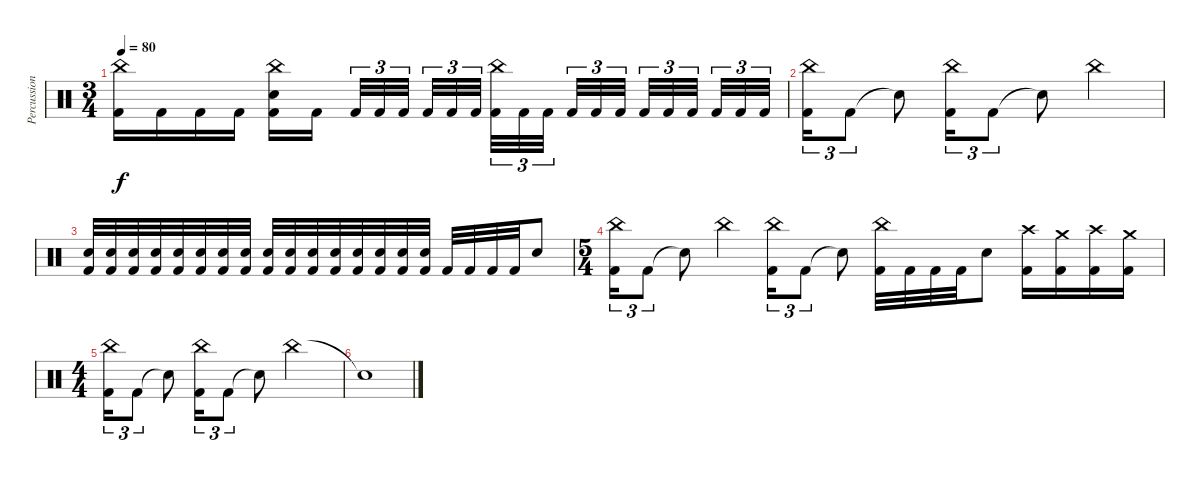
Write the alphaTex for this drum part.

\track ("Percussion" "Percussion") {instrument percussion}
\staff
\articulation defaults
\ts (3 4)
\tempo 80
\clef neutral
\ks c
("China (hit)" "Kick (hit) 2").16{dy f} "Kick (hit) 2".16 "Kick (hit) 2".16 "Kick (hit) 2".16 ("China (hit)" "Electric Snare (hit)" "Kick (hit) 2").16 "Kick (hit) 2".16{beam splitsecondary} "Kick (hit) 2".32{tu (3 2)} "Kick (hit) 2".32{tu (3 2)} "Kick (hit) 2".32{tu (3 2) beam splitsecondary} "Kick (hit) 2".32{tu (3 2)} "Kick (hit) 2".32{tu (3 2)} "Kick (hit) 2".32{tu (3 2)} ("China (hit)" "Kick (hit) 2").32{tu (3 2)} "Kick (hit) 2".32{tu (3 2)} "Kick (hit) 2".32{tu (3 2) beam splitsecondary} "Kick (hit) 2".32{tu (3 2)} "Kick (hit) 2".32{tu (3 2)} "Kick (hit) 2".32{tu (3 2) beam splitsecondary} "Kick (hit) 2".32{tu (3 2)} "Kick (hit) 2".32{tu (3 2)} "Kick (hit) 2".32{tu (3 2) beam splitsecondary} "Kick (hit) 2".32{tu (3 2)} "Kick (hit) 2".32{tu (3 2)} "Kick (hit) 2".32{tu (3 2)} |
("China (hit)" "Kick (hit) 2").16{tu (3 2)} "Kick (hit) 2".8{tu (3 2)} "Snare (hit)"{t}.8 ("China (hit)" "Kick (hit) 2").16{tu (3 2)} "Kick (hit) 2".8{tu (3 2)} "Snare (hit)"{t}.8 "China (hit)".4 |
("Electric Snare (hit)" "Kick (hit) 2").32 ("Electric Snare (hit)" "Kick (hit) 2").32 ("Electric Snare (hit)" "Kick (hit) 2").32 ("Electric Snare (hit)" "Kick (hit) 2").32 ("Electric Snare (hit)" "Kick (hit) 2").32 ("Electric Snare (hit)" "Kick (hit) 2").32 ("Electric Snare (hit)" "Kick (hit) 2").32 ("Electric Snare (hit)" "Kick (hit) 2").32 ("Electric Snare (hit)" "Kick (hit) 2").32 ("Electric Snare (hit)" "Kick (hit) 2").32 ("Electric Snare (hit)" "Kick (hit) 2").32 ("Electric Snare (hit)" "Kick (hit) 2").32 ("Electric Snare (hit)" "Kick (hit) 2").32 ("Electric Snare (hit)" "Kick (hit) 2").32 ("Electric Snare (hit)" "Kick (hit) 2").32 ("Electric Snare (hit)" "Kick (hit) 2").32 "Kick (hit) 2".32 "Kick (hit) 2".32 "Kick (hit) 2".32 "Kick (hit) 2".32 "Electric Snare (hit)".8 |
\ts (5 4)
("China (hit)" "Kick (hit) 2").16{tu (3 2)} "Kick (hit) 2".8{tu (3 2)} "Snare (hit)"{t}.8 "China (hit)".4 ("China (hit)" "Kick (hit) 2").16{tu (3 2)} "Kick (hit) 2".8{tu (3 2)} "Snare (hit)"{t}.8 ("China (hit)" "Kick (hit) 2").32 "Kick (hit) 2".32 "Kick (hit) 2".32 "Kick (hit) 2".32 "Electric Snare (hit)".8 ("Crash high (hit)" "Kick (hit) 2").16 ("Crash medium (hit)" "Kick (hit) 2").16 ("Crash high (hit)" "Kick (hit) 2").16 ("Crash medium (hit)" "Kick (hit) 2").16 |
\ts (4 4)
("China (hit)" "Kick (hit) 2").16{tu (3 2)} "Kick (hit) 2".8{tu (3 2)} "Snare (hit)"{t}.8 ("China (hit)" "Kick (hit) 2").16{tu (3 2)} "Kick (hit) 2".8{tu (3 2)} "Snare (hit)"{t}.8 "China (hit)".2 |
"Snare (hit)"{t}.1
